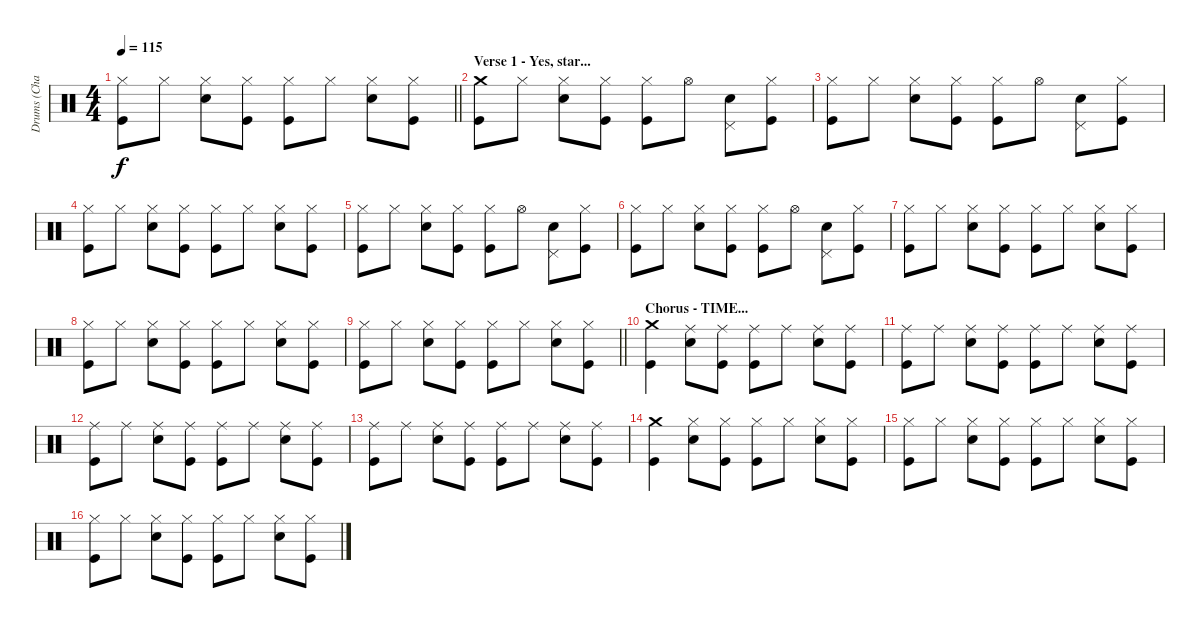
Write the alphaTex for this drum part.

\track ("Drums (Charlie)" "Drums (Cha") {instrument percussion}
\staff {score}
\articulation defaults
\ts (4 4)
\tempo 115
\clef neutral
\barLineRight lightlight
\ks c
("Hi-Hat (closed)" "Kick (hit)").8{dy f} "Hi-Hat (closed)".8 ("Hi-Hat (closed)" "Electric Snare (hit)").8 ("Hi-Hat (closed)" "Kick (hit)").8 ("Hi-Hat (closed)" "Kick (hit)").8 "Hi-Hat (closed)".8 ("Hi-Hat (closed)" "Electric Snare (hit)").8 ("Hi-Hat (closed)" "Kick (hit)").8 |
\section ("" "Verse 1 - Yes, star...")
("Crash medium (hit)" "Kick (hit)").8 "Hi-Hat (closed)".8 ("Hi-Hat (closed)" "Electric Snare (hit)").8 ("Hi-Hat (closed)" "Kick (hit)").8 ("Hi-Hat (closed)" "Kick (hit)").8 "Hi-Hat (open)".8 ("Pedal Hi-Hat (hit)" "Electric Snare (hit)").8 ("Hi-Hat (closed)" "Kick (hit)").8 |
("Hi-Hat (closed)" "Kick (hit)").8 "Hi-Hat (closed)".8 ("Hi-Hat (closed)" "Electric Snare (hit)").8 ("Hi-Hat (closed)" "Kick (hit)").8 ("Hi-Hat (closed)" "Kick (hit)").8 "Hi-Hat (open)".8 ("Pedal Hi-Hat (hit)" "Electric Snare (hit)").8 ("Hi-Hat (closed)" "Kick (hit)").8 |
("Hi-Hat (closed)" "Kick (hit)").8 "Hi-Hat (closed)".8 ("Hi-Hat (closed)" "Electric Snare (hit)").8 ("Hi-Hat (closed)" "Kick (hit)").8 ("Hi-Hat (closed)" "Kick (hit)").8 "Hi-Hat (closed)".8 ("Hi-Hat (closed)" "Electric Snare (hit)").8 ("Hi-Hat (closed)" "Kick (hit)").8 |
("Hi-Hat (closed)" "Kick (hit)").8 "Hi-Hat (closed)".8 ("Hi-Hat (closed)" "Electric Snare (hit)").8 ("Hi-Hat (closed)" "Kick (hit)").8 ("Hi-Hat (closed)" "Kick (hit)").8 "Hi-Hat (open)".8 ("Pedal Hi-Hat (hit)" "Electric Snare (hit)").8 ("Hi-Hat (closed)" "Kick (hit)").8 |
("Hi-Hat (closed)" "Kick (hit)").8 "Hi-Hat (closed)".8 ("Hi-Hat (closed)" "Electric Snare (hit)").8 ("Hi-Hat (closed)" "Kick (hit)").8 ("Hi-Hat (closed)" "Kick (hit)").8 "Hi-Hat (open)".8 ("Pedal Hi-Hat (hit)" "Electric Snare (hit)").8 ("Hi-Hat (closed)" "Kick (hit)").8 |
("Hi-Hat (closed)" "Kick (hit)").8 "Hi-Hat (closed)".8 ("Hi-Hat (closed)" "Electric Snare (hit)").8 ("Hi-Hat (closed)" "Kick (hit)").8 ("Hi-Hat (closed)" "Kick (hit)").8 "Hi-Hat (closed)".8 ("Hi-Hat (closed)" "Electric Snare (hit)").8 ("Hi-Hat (closed)" "Kick (hit)").8 |
("Hi-Hat (closed)" "Kick (hit)").8 "Hi-Hat (closed)".8 ("Hi-Hat (closed)" "Electric Snare (hit)").8 ("Hi-Hat (closed)" "Kick (hit)").8 ("Hi-Hat (closed)" "Kick (hit)").8 "Hi-Hat (closed)".8 ("Hi-Hat (closed)" "Electric Snare (hit)").8 ("Hi-Hat (closed)" "Kick (hit)").8 |
\barLineRight lightlight
("Hi-Hat (closed)" "Kick (hit)").8 "Hi-Hat (closed)".8 ("Hi-Hat (closed)" "Electric Snare (hit)").8 ("Hi-Hat (closed)" "Kick (hit)").8 ("Hi-Hat (closed)" "Kick (hit)").8 "Hi-Hat (closed)".8 ("Hi-Hat (closed)" "Electric Snare (hit)").8 ("Hi-Hat (closed)" "Kick (hit)").8 |
\section ("" "Chorus - TIME...")
("Crash medium (hit)" "Kick (hit)").4 ("Ride (middle)" "Electric Snare (hit)").8 ("Ride (middle)" "Kick (hit)").8 ("Ride (middle)" "Kick (hit)").8 "Ride (middle)".8 ("Ride (middle)" "Electric Snare (hit)").8 ("Ride (middle)" "Kick (hit)").8 |
("Ride (middle)" "Kick (hit)").8 "Ride (middle)".8 ("Ride (middle)" "Electric Snare (hit)").8 ("Ride (middle)" "Kick (hit)").8 ("Ride (middle)" "Kick (hit)").8 "Ride (middle)".8 ("Ride (middle)" "Electric Snare (hit)").8 ("Ride (middle)" "Kick (hit)").8 |
("Ride (middle)" "Kick (hit)").8 "Ride (middle)".8 ("Ride (middle)" "Electric Snare (hit)").8 ("Ride (middle)" "Kick (hit)").8 ("Ride (middle)" "Kick (hit)").8 "Ride (middle)".8 ("Ride (middle)" "Electric Snare (hit)").8 ("Ride (middle)" "Kick (hit)").8 |
("Ride (middle)" "Kick (hit)").8 "Ride (middle)".8 ("Ride (middle)" "Electric Snare (hit)").8 ("Ride (middle)" "Kick (hit)").8 ("Ride (middle)" "Kick (hit)").8 "Ride (middle)".8 ("Ride (middle)" "Electric Snare (hit)").8 ("Ride (middle)" "Kick (hit)").8 |
("Crash medium (hit)" "Kick (hit)").4 ("Hi-Hat (closed)" "Electric Snare (hit)").8 ("Hi-Hat (closed)" "Kick (hit)").8 ("Hi-Hat (closed)" "Kick (hit)").8 "Hi-Hat (closed)".8 ("Hi-Hat (closed)" "Electric Snare (hit)").8 ("Hi-Hat (closed)" "Kick (hit)").8 |
("Hi-Hat (closed)" "Kick (hit)").8 "Hi-Hat (closed)".8 ("Hi-Hat (closed)" "Electric Snare (hit)").8 ("Hi-Hat (closed)" "Kick (hit)").8 ("Hi-Hat (closed)" "Kick (hit)").8 "Hi-Hat (closed)".8 ("Hi-Hat (closed)" "Electric Snare (hit)").8 ("Hi-Hat (closed)" "Kick (hit)").8 |
("Hi-Hat (closed)" "Kick (hit)").8 "Hi-Hat (closed)".8 ("Hi-Hat (closed)" "Electric Snare (hit)").8 ("Hi-Hat (closed)" "Kick (hit)").8 ("Hi-Hat (closed)" "Kick (hit)").8 "Hi-Hat (closed)".8 ("Hi-Hat (closed)" "Electric Snare (hit)").8 ("Hi-Hat (closed)" "Kick (hit)").8
